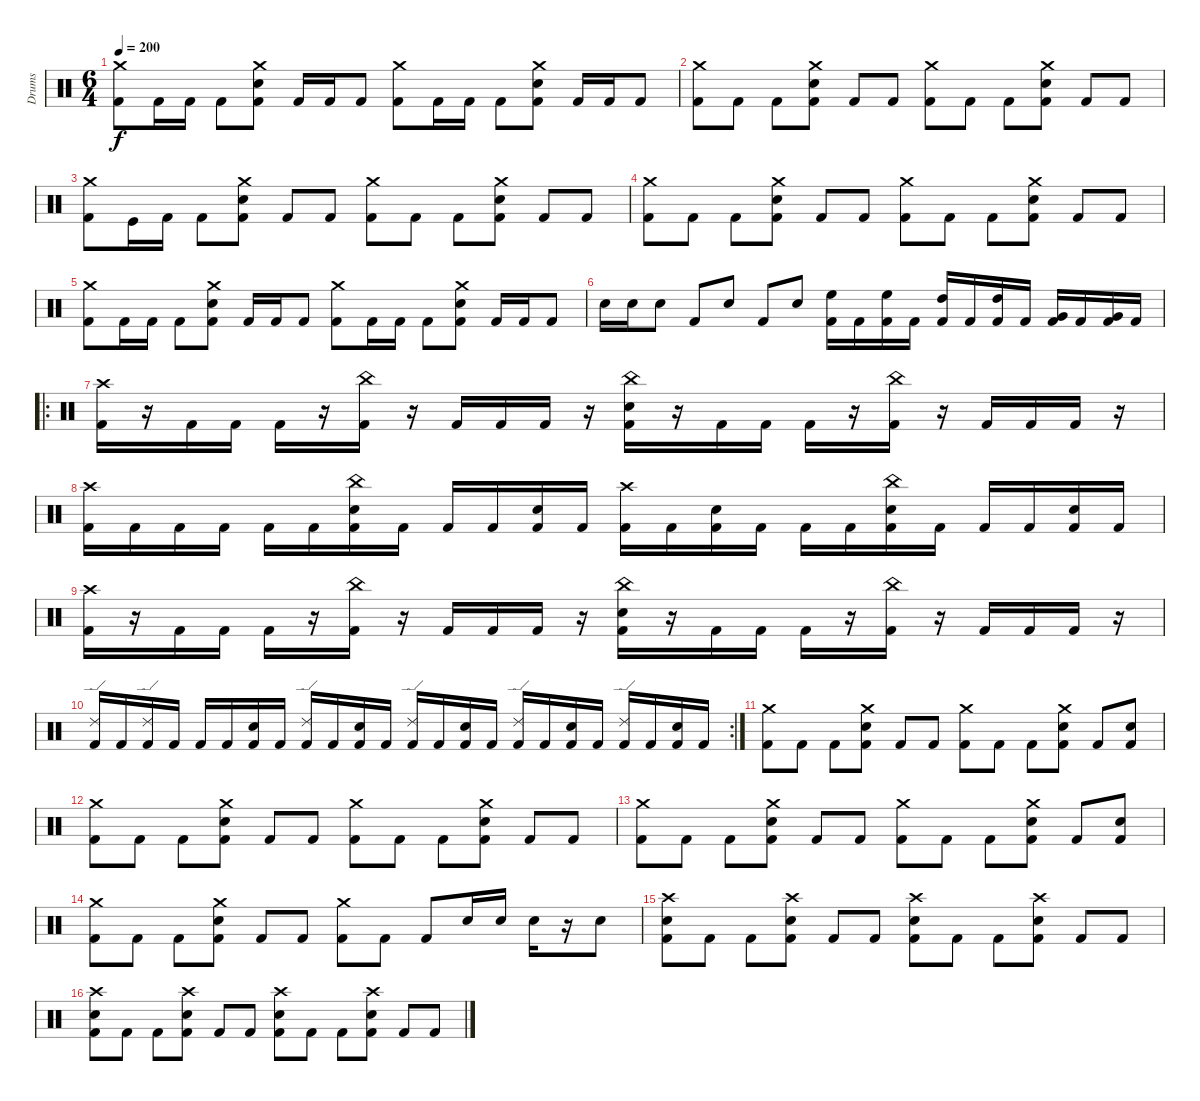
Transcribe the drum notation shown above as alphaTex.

\track ("Drums" "Drums") {mute instrument percussion}
\staff {score}
\articulation defaults
\ts (6 4)
\tempo 200
\clef neutral
\ks c
("Crash medium (hit)" "Kick (hit) 2").8{dy f} "Kick (hit) 2".16 "Kick (hit) 2".16 "Kick (hit) 2".8 ("Crash medium (hit)" "Electric Snare (hit)" "Kick (hit) 2").8 "Kick (hit) 2".16 "Kick (hit) 2".16 "Kick (hit) 2".8 ("Crash medium (hit)" "Kick (hit) 2").8 "Kick (hit) 2".16 "Kick (hit) 2".16 "Kick (hit) 2".8 ("Crash medium (hit)" "Electric Snare (hit)" "Kick (hit) 2").8 "Kick (hit) 2".16 "Kick (hit) 2".16 "Kick (hit) 2".8 |
("Crash medium (hit)" "Kick (hit) 2").8 "Kick (hit) 2".8 "Kick (hit) 2".8 ("Crash medium (hit)" "Electric Snare (hit)" "Kick (hit) 2").8 "Kick (hit) 2".8 "Kick (hit) 2".8 ("Crash medium (hit)" "Kick (hit) 2").8 "Kick (hit) 2".8 "Kick (hit) 2".8 ("Crash medium (hit)" "Electric Snare (hit)" "Kick (hit) 2").8 "Kick (hit) 2".8 "Kick (hit) 2".8 |
("Crash medium (hit)" "Kick (hit) 2").8 "Kick (hit)".16 "Kick (hit) 2".16 "Kick (hit) 2".8 ("Crash medium (hit)" "Electric Snare (hit)" "Kick (hit) 2").8 "Kick (hit) 2".8 "Kick (hit) 2".8 ("Crash medium (hit)" "Kick (hit) 2").8 "Kick (hit) 2".8 "Kick (hit) 2".8 ("Crash medium (hit)" "Electric Snare (hit)" "Kick (hit) 2").8 "Kick (hit) 2".8 "Kick (hit) 2".8 |
("Crash medium (hit)" "Kick (hit) 2").8 "Kick (hit) 2".8 "Kick (hit) 2".8 ("Crash medium (hit)" "Electric Snare (hit)" "Kick (hit) 2").8 "Kick (hit) 2".8 "Kick (hit) 2".8 ("Crash medium (hit)" "Kick (hit) 2").8 "Kick (hit) 2".8 "Kick (hit) 2".8 ("Crash medium (hit)" "Electric Snare (hit)" "Kick (hit) 2").8 "Kick (hit) 2".8 "Kick (hit) 2".8 |
("Crash medium (hit)" "Kick (hit) 2").8 "Kick (hit) 2".16 "Kick (hit) 2".16 "Kick (hit) 2".8 ("Crash medium (hit)" "Electric Snare (hit)" "Kick (hit) 2").8 "Kick (hit) 2".16 "Kick (hit) 2".16 "Kick (hit) 2".8 ("Crash medium (hit)" "Kick (hit) 2").8 "Kick (hit) 2".16 "Kick (hit) 2".16 "Kick (hit) 2".8 ("Crash medium (hit)" "Electric Snare (hit)" "Kick (hit) 2").8 "Kick (hit) 2".16 "Kick (hit) 2".16 "Kick (hit) 2".8 |
"Electric Snare (hit)".16 "Electric Snare (hit)".16 "Electric Snare (hit)".8 "Kick (hit) 2".8 "Electric Snare (hit)".8 "Kick (hit) 2".8 "Electric Snare (hit)".8 ("High Floor Tom (hit)" "Kick (hit) 2").16 "Kick (hit) 2".16 ("High Floor Tom (hit)" "Kick (hit) 2").16 "Kick (hit) 2".16 ("High Tom (hit)" "Kick (hit) 2").16 "Kick (hit) 2".16 ("High Tom (hit)" "Kick (hit) 2").16 "Kick (hit) 2".16 ("Very Low Tom (hit)" "Kick (hit) 2").16 "Kick (hit) 2".16 ("Very Low Tom (hit)" "Kick (hit) 2").16 "Kick (hit) 2".16 |
\ro
("Crash high (hit)" "Kick (hit) 2").16 r.16 "Kick (hit) 2".16 "Kick (hit) 2".16 "Kick (hit) 2".16 r.16 ("China (hit)" "Kick (hit) 2").16 r.16 "Kick (hit) 2".16 "Kick (hit) 2".16 "Kick (hit) 2".16 r.16 ("China (hit)" "Electric Snare (hit)" "Kick (hit) 2").16 r.16 "Kick (hit) 2".16 "Kick (hit) 2".16 "Kick (hit) 2".16 r.16 ("China (hit)" "Kick (hit) 2").16 r.16 "Kick (hit) 2".16 "Kick (hit) 2".16 "Kick (hit) 2".16 r.16 |
("Crash high (hit)" "Kick (hit) 2").16 "Kick (hit) 2".16 "Kick (hit) 2".16 "Kick (hit) 2".16 "Kick (hit) 2".16 "Kick (hit) 2".16 ("China (hit)" "Electric Snare (hit)" "Kick (hit) 2").16 "Kick (hit) 2".16 "Kick (hit) 2".16 "Kick (hit) 2".16 ("Electric Snare (hit)" "Kick (hit) 2").16 "Kick (hit) 2".16 ("Crash high (hit)" "Kick (hit) 2").16 "Kick (hit) 2".16 ("Electric Snare (hit)" "Kick (hit) 2").16 "Kick (hit) 2".16 "Kick (hit) 2".16 "Kick (hit) 2".16 ("China (hit)" "Electric Snare (hit)" "Kick (hit) 2").16 "Kick (hit) 2".16 "Kick (hit) 2".16 "Kick (hit) 2".16 ("Electric Snare (hit)" "Kick (hit) 2").16 "Kick (hit) 2".16 |
("Crash high (hit)" "Kick (hit) 2").16 r.16 "Kick (hit) 2".16 "Kick (hit) 2".16 "Kick (hit) 2".16 r.16 ("China (hit)" "Kick (hit) 2").16 r.16 "Kick (hit) 2".16 "Kick (hit) 2".16 "Kick (hit) 2".16 r.16 ("China (hit)" "Electric Snare (hit)" "Kick (hit) 2").16 r.16 "Kick (hit) 2".16 "Kick (hit) 2".16 "Kick (hit) 2".16 r.16 ("China (hit)" "Kick (hit) 2").16 r.16 "Kick (hit) 2".16 "Kick (hit) 2".16 "Kick (hit) 2".16 r.16 |
\rc 2
("Ride (edge) 2" "Kick (hit) 2").16 "Kick (hit) 2".16 ("Ride (edge) 2" "Kick (hit) 2").16 "Kick (hit) 2".16 "Kick (hit) 2".16 "Kick (hit) 2".16 ("Electric Snare (hit)" "Kick (hit) 2").16 "Kick (hit) 2".16 ("Ride (edge) 2" "Kick (hit) 2").16 "Kick (hit) 2".16 ("Electric Snare (hit)" "Kick (hit) 2").16 "Kick (hit) 2".16 ("Ride (edge) 2" "Kick (hit) 2").16 "Kick (hit) 2".16 ("Electric Snare (hit)" "Kick (hit) 2").16 "Kick (hit) 2".16 ("Ride (edge) 2" "Kick (hit) 2").16 "Kick (hit) 2".16 ("Electric Snare (hit)" "Kick (hit) 2").16 "Kick (hit) 2".16 ("Ride (edge) 2" "Kick (hit) 2").16 "Kick (hit) 2".16 ("Electric Snare (hit)" "Kick (hit) 2").16 "Kick (hit) 2".16 |
("Crash medium (hit)" "Kick (hit) 2").8 "Kick (hit) 2".8 "Kick (hit) 2".8 ("Crash medium (hit)" "Electric Snare (hit)" "Kick (hit) 2").8 "Kick (hit) 2".8 "Kick (hit) 2".8 ("Crash medium (hit)" "Kick (hit) 2").8 "Kick (hit) 2".8 "Kick (hit) 2".8 ("Crash medium (hit)" "Electric Snare (hit)" "Kick (hit) 2").8 "Kick (hit) 2".8 ("Electric Snare (hit)" "Kick (hit) 2").8 |
("Crash medium (hit)" "Kick (hit) 2").8 "Kick (hit) 2".8 "Kick (hit) 2".8 ("Crash medium (hit)" "Electric Snare (hit)" "Kick (hit) 2").8 "Kick (hit) 2".8 "Kick (hit) 2".8 ("Crash medium (hit)" "Kick (hit) 2").8 "Kick (hit) 2".8 "Kick (hit) 2".8 ("Crash medium (hit)" "Electric Snare (hit)" "Kick (hit) 2").8 "Kick (hit) 2".8 "Kick (hit) 2".8 |
("Crash medium (hit)" "Kick (hit) 2").8 "Kick (hit) 2".8 "Kick (hit) 2".8 ("Crash medium (hit)" "Electric Snare (hit)" "Kick (hit) 2").8 "Kick (hit) 2".8 "Kick (hit) 2".8 ("Crash medium (hit)" "Kick (hit) 2").8 "Kick (hit) 2".8 "Kick (hit) 2".8 ("Crash medium (hit)" "Electric Snare (hit)" "Kick (hit) 2").8 "Kick (hit) 2".8 ("Electric Snare (hit)" "Kick (hit) 2").8 |
("Crash medium (hit)" "Kick (hit) 2").8 "Kick (hit) 2".8 "Kick (hit) 2".8 ("Crash medium (hit)" "Electric Snare (hit)" "Kick (hit) 2").8 "Kick (hit) 2".8 "Kick (hit) 2".8 ("Crash medium (hit)" "Kick (hit) 2").8 "Kick (hit) 2".8 "Kick (hit) 2".8 "Electric Snare (hit)".16 "Electric Snare (hit)".16 "Electric Snare (hit)".16 r.16 "Electric Snare (hit)".8 |
("Crash high (hit)" "Electric Snare (hit)" "Kick (hit) 2").8 "Kick (hit) 2".8 "Kick (hit) 2".8 ("Crash high (hit)" "Electric Snare (hit)" "Kick (hit) 2").8 "Kick (hit) 2".8 "Kick (hit) 2".8 ("Crash high (hit)" "Electric Snare (hit)" "Kick (hit) 2").8 "Kick (hit) 2".8 "Kick (hit) 2".8 ("Crash high (hit)" "Electric Snare (hit)" "Kick (hit) 2").8 "Kick (hit) 2".8 "Kick (hit) 2".8 |
("Crash high (hit)" "Electric Snare (hit)" "Kick (hit) 2").8 "Kick (hit) 2".8 "Kick (hit) 2".8 ("Crash high (hit)" "Electric Snare (hit)" "Kick (hit) 2").8 "Kick (hit) 2".8 "Kick (hit) 2".8 ("Crash high (hit)" "Electric Snare (hit)" "Kick (hit) 2").8 "Kick (hit) 2".8 "Kick (hit) 2".8 ("Crash high (hit)" "Electric Snare (hit)" "Kick (hit) 2").8 "Kick (hit) 2".8 "Kick (hit) 2".8
